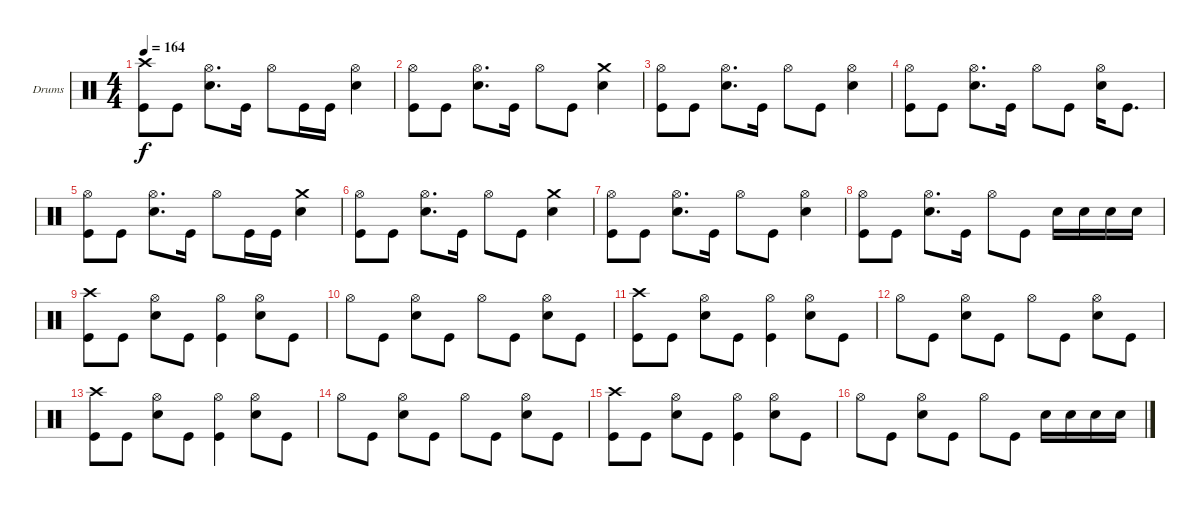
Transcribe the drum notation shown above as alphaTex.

\defaultSystemsLayout 4
\bracketExtendMode groupsimilarinstruments
\firstSystemTrackNameOrientation horizontal
\otherSystemsTrackNameOrientation horizontal
\track ("Drumkit" "Drums") {instrument percussion}
\staff {score}
\articulation defaults
\ts (4 4)
\tempo 164
\clef neutral
\ks c
("Kick (hit)" "Crash high (hit)").8{dy f} "Kick (hit)".8 ("Snare (hit) 2" "Hi-Hat (open)").8{d} "Kick (hit)".16 "Hi-Hat (open)".8 "Kick (hit)".16 "Kick (hit)".16 ("Snare (hit) 2" "Hi-Hat (open)").4 |
("Kick (hit)" "Hi-Hat (open)").8 "Kick (hit)".8 ("Snare (hit) 2" "Hi-Hat (open)").8{d} "Kick (hit)".16 "Hi-Hat (open)".8 "Kick (hit)".8 ("Snare (hit) 2" "Crash medium (hit)").4 |
("Kick (hit)" "Hi-Hat (open)").8 "Kick (hit)".8 ("Snare (hit) 2" "Hi-Hat (open)").8{d} "Kick (hit)".16 "Hi-Hat (open)".8 "Kick (hit)".8 ("Snare (hit) 2" "Hi-Hat (open)").4 |
("Kick (hit)" "Hi-Hat (open)").8 "Kick (hit)".8 ("Snare (hit) 2" "Hi-Hat (open)").8{d} "Kick (hit)".16 "Hi-Hat (open)".8 "Kick (hit)".8 ("Snare (hit) 2" "Hi-Hat (open)").16 "Kick (hit)".8{d} |
("Kick (hit)" "Hi-Hat (open)").8 "Kick (hit)".8 ("Snare (hit) 2" "Hi-Hat (open)").8{d} "Kick (hit)".16 "Hi-Hat (open)".8 "Kick (hit)".16 "Kick (hit)".16 ("Snare (hit) 2" "Crash medium (hit)").4 |
("Kick (hit)" "Hi-Hat (open)").8 "Kick (hit)".8 ("Snare (hit) 2" "Hi-Hat (open)").8{d} "Kick (hit)".16 "Hi-Hat (open)".8 "Kick (hit)".8 ("Snare (hit) 2" "Crash medium (hit)").4 |
("Kick (hit)" "Hi-Hat (open)").8 "Kick (hit)".8 ("Snare (hit) 2" "Hi-Hat (open)").8{d} "Kick (hit)".16 "Hi-Hat (open)".8 "Kick (hit)".8 ("Snare (hit) 2" "Hi-Hat (open)").4 |
("Kick (hit)" "Hi-Hat (open)").8 "Kick (hit)".8 ("Snare (hit) 2" "Hi-Hat (open)").8{d} "Kick (hit)".16 "Hi-Hat (open)".8 "Kick (hit)".8 "Snare (hit) 2".16 "Snare (hit) 2".16 "Snare (hit) 2".16 "Snare (hit) 2".16 |
("Kick (hit)" "Crash high (hit)").8 "Kick (hit)".8 ("Snare (hit) 2" "Hi-Hat (open)").8 "Kick (hit)".8 ("Kick (hit)" "Hi-Hat (open)").4 ("Snare (hit) 2" "Hi-Hat (open)").8 "Kick (hit)".8 |
"Hi-Hat (open)".8 "Kick (hit)".8 ("Snare (hit) 2" "Hi-Hat (open)").8 "Kick (hit)".8 "Hi-Hat (open)".8 "Kick (hit)".8 ("Snare (hit) 2" "Hi-Hat (open)").8 "Kick (hit)".8 |
("Kick (hit)" "Crash high (hit)").8 "Kick (hit)".8 ("Snare (hit) 2" "Hi-Hat (open)").8 "Kick (hit)".8 ("Kick (hit)" "Hi-Hat (open)").4 ("Snare (hit) 2" "Hi-Hat (open)").8 "Kick (hit)".8 |
"Hi-Hat (open)".8 "Kick (hit)".8 ("Snare (hit) 2" "Hi-Hat (open)").8 "Kick (hit)".8 "Hi-Hat (open)".8 "Kick (hit)".8 ("Snare (hit) 2" "Hi-Hat (open)").8 "Kick (hit)".8 |
("Kick (hit)" "Crash high (hit)").8 "Kick (hit)".8 ("Snare (hit) 2" "Hi-Hat (open)").8 "Kick (hit)".8 ("Kick (hit)" "Hi-Hat (open)").4 ("Snare (hit) 2" "Hi-Hat (open)").8 "Kick (hit)".8 |
"Hi-Hat (open)".8 "Kick (hit)".8 ("Snare (hit) 2" "Hi-Hat (open)").8 "Kick (hit)".8 "Hi-Hat (open)".8 "Kick (hit)".8 ("Snare (hit) 2" "Hi-Hat (open)").8 "Kick (hit)".8 |
("Kick (hit)" "Crash high (hit)").8 "Kick (hit)".8 ("Snare (hit) 2" "Hi-Hat (open)").8 "Kick (hit)".8 ("Kick (hit)" "Hi-Hat (open)").4 ("Snare (hit) 2" "Hi-Hat (open)").8 "Kick (hit)".8 |
"Hi-Hat (open)".8 "Kick (hit)".8 ("Snare (hit) 2" "Hi-Hat (open)").8 "Kick (hit)".8 "Hi-Hat (open)".8 "Kick (hit)".8 "Snare (hit) 2".16 "Snare (hit) 2".16 "Snare (hit) 2".16 "Snare (hit) 2".16
